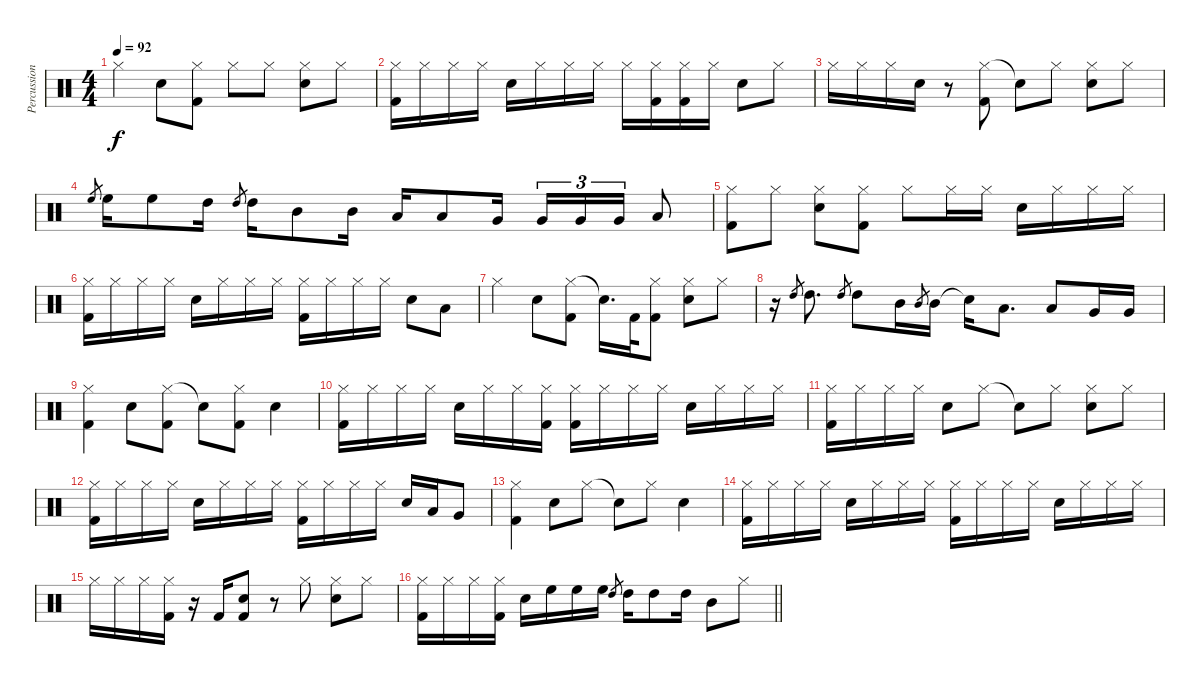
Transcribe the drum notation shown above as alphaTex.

\track ("Percussion" "Percussion") {instrument percussion}
\staff {score}
\articulation defaults
\ts (4 4)
\tempo 92
\clef neutral
\ks c "Hi-Hat (closed)".4{dy f} "Snare (hit) 2".8
("Hi-Hat (closed)" "Kick (hit) 2").8 "Hi-Hat (closed)".8 "Hi-Hat (closed)".8 ("Hi-Hat (closed)" "Snare (hit) 2").8 "Hi-Hat (closed)".8 |
("Hi-Hat (closed)" "Kick (hit) 2").16 "Hi-Hat (closed)".16 "Hi-Hat (closed)".16 "Hi-Hat (closed)".16 "Snare (hit) 2".16 "Hi-Hat (closed)".16 "Hi-Hat (closed)".16 "Hi-Hat (closed)".16 "Hi-Hat (closed)".16 ("Hi-Hat (closed)" "Kick (hit) 2").16 ("Hi-Hat (closed)" "Kick (hit) 2").16 "Hi-Hat (closed)".16 "Snare (hit) 2".8 "Hi-Hat (closed)".8 |
"Hi-Hat (closed)".16 "Hi-Hat (closed)".16 "Hi-Hat (closed)".16 "Snare (hit) 2".16 r.8 ("Hi-Hat (closed)" "Kick (hit) 2").8 "Snare (hit)"{t}.8 "Hi-Hat (closed)".8 ("Hi-Hat (closed)" "Snare (hit) 2").8 "Hi-Hat (closed)".8 |
"High Floor Tom (hit)".8{gr} "High Floor Tom (hit)".16 "High Floor Tom (hit)".8 "High Tom (hit)".16 "High Tom (hit)".8{gr} "High Tom (hit)".16 "Mid Tom (hit)".8 "Mid Tom (hit)".16 "Low Tom (hit)".16 "Low Tom (hit)".8 "Very Low Tom (hit)".16 "Very Low Tom (hit)".16{tu (3 2)} "Very Low Tom (hit)".16{tu (3 2)} "Very Low Tom (hit)".16{tu (3 2)} "Low Floor Tom (hit)".8 |
("Hi-Hat (closed)" "Kick (hit) 2").8 "Hi-Hat (closed)".8 ("Hi-Hat (closed)" "Snare (hit) 2").8 ("Hi-Hat (closed)" "Kick (hit) 2").8 "Hi-Hat (closed)".8 "Hi-Hat (closed)".16 "Hi-Hat (closed)".16 "Snare (hit) 2".16 "Hi-Hat (closed)".16 "Hi-Hat (closed)".16 "Hi-Hat (closed)".16 |
("Hi-Hat (closed)" "Kick (hit) 2").16 "Hi-Hat (closed)".16 "Hi-Hat (closed)".16 "Hi-Hat (closed)".16 "Snare (hit) 2".16 "Hi-Hat (closed)".16 "Hi-Hat (closed)".16 "Hi-Hat (closed)".16 ("Hi-Hat (closed)" "Kick (hit) 2").16 "Hi-Hat (closed)".16 "Hi-Hat (closed)".16 "Hi-Hat (closed)".16 "Snare (hit) 2".8 "Low Tom (hit)".8 |
"Hi-Hat (closed)".4 "Snare (hit) 2".8 ("Hi-Hat (closed)" "Kick (hit) 2").8 "Snare (hit)"{t}.16{d} "Kick (hit) 2".32 ("Hi-Hat (closed)" "Kick (hit) 2").8 ("Hi-Hat (closed)" "Snare (hit) 2").8 "Hi-Hat (closed)".8 |
r.16 "High Tom (hit)".8{gr} "High Tom (hit)".8{d} "High Tom (hit)".8{gr} "High Tom (hit)".8 "Mid Tom (hit)".16 "Mid Tom (hit)".8{gr} "Mid Tom (hit)".16 "Snare (hit)"{t}.16 "Low Tom (hit)".8{d} "Low Tom (hit)".8 "Very Low Tom (hit)".16 "Very Low Tom (hit)".16 |
("Hi-Hat (closed)" "Kick (hit) 2").4 "Snare (hit) 2".8 ("Hi-Hat (closed)" "Kick (hit) 2").8 "Snare (hit)"{t}.8 ("Hi-Hat (closed)" "Kick (hit) 2").8 "Snare (hit) 2".4 |
("Hi-Hat (closed)" "Kick (hit) 2").16 "Hi-Hat (closed)".16 "Hi-Hat (closed)".16 "Hi-Hat (closed)".16 "Snare (hit) 2".16 "Hi-Hat (closed)".16 "Hi-Hat (closed)".16 ("Hi-Hat (closed)" "Kick (hit) 2").16 ("Hi-Hat (closed)" "Kick (hit) 2").16 "Hi-Hat (closed)".16 "Hi-Hat (closed)".16 "Hi-Hat (closed)".16 "Snare (hit) 2".16 "Hi-Hat (closed)".16 "Hi-Hat (closed)".16 "Hi-Hat (closed)".16 |
("Hi-Hat (closed)" "Kick (hit) 2").16 "Hi-Hat (closed)".16 "Hi-Hat (closed)".16 "Hi-Hat (closed)".16 "Snare (hit) 2".8 "Hi-Hat (closed)".8 "Snare (hit)"{t}.8 "Hi-Hat (closed)".8 ("Hi-Hat (closed)" "Snare (hit) 2").8 "Hi-Hat (closed)".8 |
("Hi-Hat (closed)" "Kick (hit) 2").16 "Hi-Hat (closed)".16 "Hi-Hat (closed)".16 "Hi-Hat (closed)".16 "Snare (hit) 2".16 "Hi-Hat (closed)".16 "Hi-Hat (closed)".16 "Hi-Hat (closed)".16 ("Hi-Hat (closed)" "Kick (hit) 2").16 "Hi-Hat (closed)".16 "Hi-Hat (closed)".16 "Hi-Hat (closed)".16 "Snare (hit) 2".16 "Low Tom (hit)".16 "Very Low Tom (hit)".8 |
("Hi-Hat (closed)" "Kick (hit) 2").4 "Snare (hit) 2".8 "Hi-Hat (closed)".8 "Snare (hit)"{t}.8 "Hi-Hat (closed)".8 "Snare (hit) 2".4 |
("Hi-Hat (closed)" "Kick (hit) 2").16 "Hi-Hat (closed)".16 "Hi-Hat (closed)".16 "Hi-Hat (closed)".16 "Snare (hit) 2".16 "Hi-Hat (closed)".16 "Hi-Hat (closed)".16 "Hi-Hat (closed)".16 ("Hi-Hat (closed)" "Kick (hit) 2").16 "Hi-Hat (closed)".16 "Hi-Hat (closed)".16 "Hi-Hat (closed)".16 "Snare (hit) 2".16 "Hi-Hat (closed)".16 "Hi-Hat (closed)".16 "Hi-Hat (closed)".16 |
"Hi-Hat (closed)".16 "Hi-Hat (closed)".16 "Hi-Hat (closed)".16 ("Hi-Hat (closed)" "Kick (hit) 2").16 r.16 "Kick (hit) 2".16 ("Snare (hit) 2" "Kick (hit) 2").8 r.8 "Hi-Hat (closed)".8 ("Hi-Hat (closed)" "Snare (hit) 2").8 "Hi-Hat (closed)".8 |
\barLineRight lightlight
("Hi-Hat (closed)" "Kick (hit) 2").16 "Hi-Hat (closed)".16 "Hi-Hat (closed)".16 ("Hi-Hat (closed)" "Kick (hit) 2").16 "Snare (hit) 2".16 "High Floor Tom (hit)".16 "High Floor Tom (hit)".16 "High Floor Tom (hit)".16 "High Tom (hit)".8{gr} "High Tom (hit)".16 "High Tom (hit)".8 "High Tom (hit)".16 "Mid Tom (hit)".8 "Hi-Hat (closed)".8
